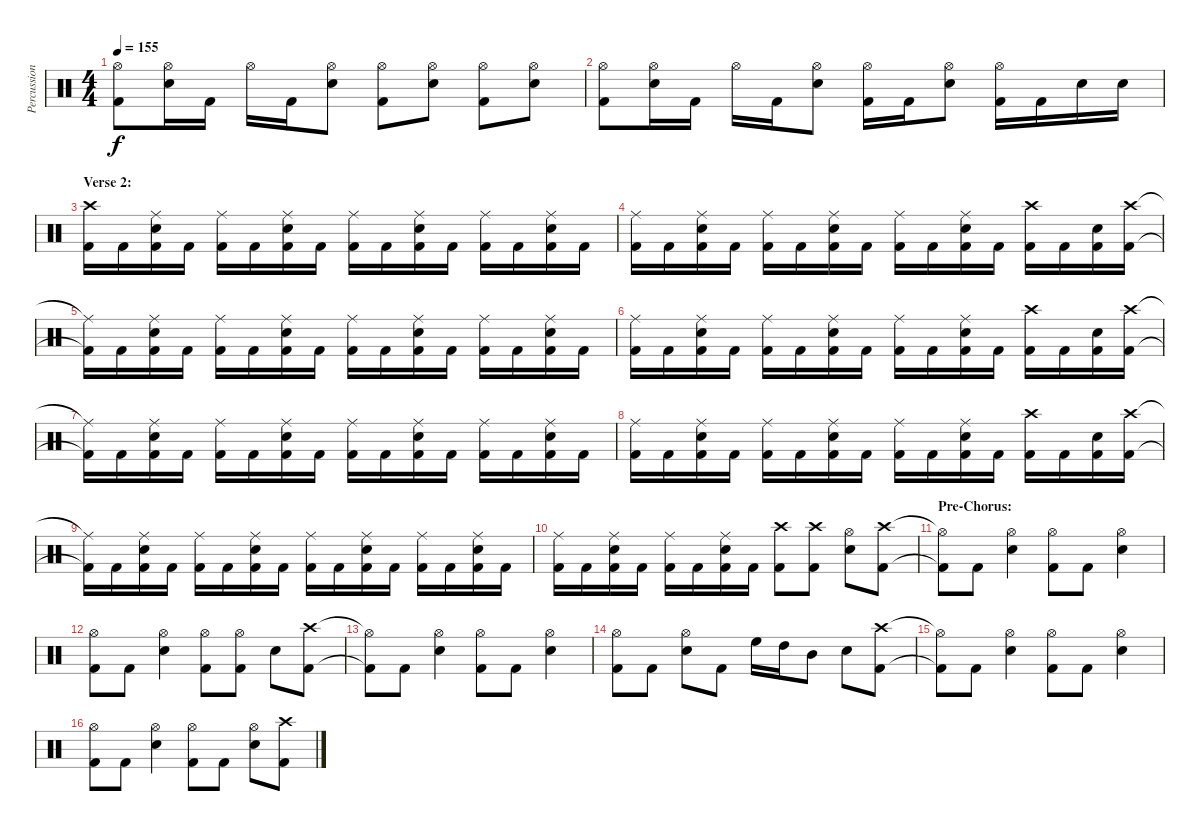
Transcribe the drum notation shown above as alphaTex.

\track ("Percussion" "Percussion") {instrument percussion}
\staff {score}
\articulation defaults
\ts (4 4)
\tempo 155
\clef neutral
\ks c
("Hi-Hat (open)" "Kick (hit) 2").8{dy f} ("Hi-Hat (open)" "Electric Snare (hit)").16 "Kick (hit) 2".16 "Hi-Hat (open)".16 "Kick (hit) 2".16 ("Hi-Hat (open)" "Electric Snare (hit)").8 ("Hi-Hat (open)" "Kick (hit) 2").8 ("Hi-Hat (open)" "Electric Snare (hit)").8 ("Hi-Hat (open)" "Kick (hit) 2").8 ("Hi-Hat (open)" "Electric Snare (hit)").8 |
("Hi-Hat (open)" "Kick (hit) 2").8 ("Hi-Hat (open)" "Electric Snare (hit)").16 "Kick (hit) 2".16 "Hi-Hat (open)".16 "Kick (hit) 2".16 ("Hi-Hat (open)" "Electric Snare (hit)").8 ("Hi-Hat (open)" "Kick (hit) 2").16 "Kick (hit) 2".16 ("Hi-Hat (open)" "Electric Snare (hit)").8 ("Hi-Hat (open)" "Kick (hit) 2").16 "Kick (hit) 2".16 "Electric Snare (hit)".16 "Electric Snare (hit)".16 |
\section ("" "Verse 2:")
("Crash high (hit)" "Kick (hit) 2").16 "Kick (hit) 2".16 ("Ride (middle)" "Electric Snare (hit)" "Kick (hit) 2").16 "Kick (hit) 2".16 ("Ride (middle)" "Kick (hit) 2").16 "Kick (hit) 2".16 ("Ride (middle)" "Electric Snare (hit)" "Kick (hit) 2").16 "Kick (hit) 2".16 ("Ride (middle)" "Kick (hit) 2").16 "Kick (hit) 2".16 ("Ride (middle)" "Electric Snare (hit)" "Kick (hit) 2").16 "Kick (hit) 2".16 ("Ride (middle)" "Kick (hit) 2").16 "Kick (hit) 2".16 ("Ride (middle)" "Electric Snare (hit)" "Kick (hit) 2").16 "Kick (hit) 2".16 |
("Ride (middle)" "Kick (hit) 2").16 "Kick (hit) 2".16 ("Ride (middle)" "Electric Snare (hit)" "Kick (hit) 2").16 "Kick (hit) 2".16 ("Ride (middle)" "Kick (hit) 2").16 "Kick (hit) 2".16 ("Ride (middle)" "Electric Snare (hit)" "Kick (hit) 2").16 "Kick (hit) 2".16 ("Ride (middle)" "Kick (hit) 2").16 "Kick (hit) 2".16 ("Ride (middle)" "Electric Snare (hit)" "Kick (hit) 2").16 "Kick (hit) 2".16 ("Crash high (hit)" "Kick (hit) 2").16 "Kick (hit) 2".16 ("Electric Snare (hit)" "Kick (hit) 2").16 ("Crash high (hit)" "Kick (hit) 2").16 |
("Ride (middle)"{t} "Kick (hit) 2"{t}).16 "Kick (hit) 2".16 ("Ride (middle)" "Electric Snare (hit)" "Kick (hit) 2").16 "Kick (hit) 2".16 ("Ride (middle)" "Kick (hit) 2").16 "Kick (hit) 2".16 ("Ride (middle)" "Electric Snare (hit)" "Kick (hit) 2").16 "Kick (hit) 2".16 ("Ride (middle)" "Kick (hit) 2").16 "Kick (hit) 2".16 ("Ride (middle)" "Electric Snare (hit)" "Kick (hit) 2").16 "Kick (hit) 2".16 ("Ride (middle)" "Kick (hit) 2").16 "Kick (hit) 2".16 ("Ride (middle)" "Electric Snare (hit)" "Kick (hit) 2").16 "Kick (hit) 2".16 |
("Ride (middle)" "Kick (hit) 2").16 "Kick (hit) 2".16 ("Ride (middle)" "Electric Snare (hit)" "Kick (hit) 2").16 "Kick (hit) 2".16 ("Ride (middle)" "Kick (hit) 2").16 "Kick (hit) 2".16 ("Ride (middle)" "Electric Snare (hit)" "Kick (hit) 2").16 "Kick (hit) 2".16 ("Ride (middle)" "Kick (hit) 2").16 "Kick (hit) 2".16 ("Ride (middle)" "Electric Snare (hit)" "Kick (hit) 2").16 "Kick (hit) 2".16 ("Crash high (hit)" "Kick (hit) 2").16 "Kick (hit) 2".16 ("Electric Snare (hit)" "Kick (hit) 2").16 ("Crash high (hit)" "Kick (hit) 2").16 |
("Ride (middle)"{t} "Kick (hit) 2"{t}).16 "Kick (hit) 2".16 ("Ride (middle)" "Electric Snare (hit)" "Kick (hit) 2").16 "Kick (hit) 2".16 ("Ride (middle)" "Kick (hit) 2").16 "Kick (hit) 2".16 ("Ride (middle)" "Electric Snare (hit)" "Kick (hit) 2").16 "Kick (hit) 2".16 ("Ride (middle)" "Kick (hit) 2").16 "Kick (hit) 2".16 ("Ride (middle)" "Electric Snare (hit)" "Kick (hit) 2").16 "Kick (hit) 2".16 ("Ride (middle)" "Kick (hit) 2").16 "Kick (hit) 2".16 ("Ride (middle)" "Electric Snare (hit)" "Kick (hit) 2").16 "Kick (hit) 2".16 |
("Ride (middle)" "Kick (hit) 2").16 "Kick (hit) 2".16 ("Ride (middle)" "Electric Snare (hit)" "Kick (hit) 2").16 "Kick (hit) 2".16 ("Ride (middle)" "Kick (hit) 2").16 "Kick (hit) 2".16 ("Ride (middle)" "Electric Snare (hit)" "Kick (hit) 2").16 "Kick (hit) 2".16 ("Ride (middle)" "Kick (hit) 2").16 "Kick (hit) 2".16 ("Ride (middle)" "Electric Snare (hit)" "Kick (hit) 2").16 "Kick (hit) 2".16 ("Crash high (hit)" "Kick (hit) 2").16 "Kick (hit) 2".16 ("Electric Snare (hit)" "Kick (hit) 2").16 ("Crash high (hit)" "Kick (hit) 2").16 |
("Ride (middle)"{t} "Kick (hit) 2"{t}).16 "Kick (hit) 2".16 ("Ride (middle)" "Electric Snare (hit)" "Kick (hit) 2").16 "Kick (hit) 2".16 ("Ride (middle)" "Kick (hit) 2").16 "Kick (hit) 2".16 ("Ride (middle)" "Electric Snare (hit)" "Kick (hit) 2").16 "Kick (hit) 2".16 ("Ride (middle)" "Kick (hit) 2").16 "Kick (hit) 2".16 ("Ride (middle)" "Electric Snare (hit)" "Kick (hit) 2").16 "Kick (hit) 2".16 ("Ride (middle)" "Kick (hit) 2").16 "Kick (hit) 2".16 ("Ride (middle)" "Electric Snare (hit)" "Kick (hit) 2").16 "Kick (hit) 2".16 |
("Ride (middle)" "Kick (hit) 2").16 "Kick (hit) 2".16 ("Ride (middle)" "Electric Snare (hit)" "Kick (hit) 2").16 "Kick (hit) 2".16 ("Ride (middle)" "Kick (hit) 2").16 "Kick (hit) 2".16 ("Ride (middle)" "Electric Snare (hit)" "Kick (hit) 2").16 "Kick (hit) 2".16 ("Crash high (hit)" "Kick (hit) 2").8 ("Crash high (hit)" "Kick (hit) 2").8 ("Hi-Hat (open)" "Electric Snare (hit)").8 ("Crash high (hit)" "Kick (hit) 2").8 |
\section ("" "Pre-Chorus:")
("Hi-Hat (open)"{t} "Kick (hit) 2"{t}).8 "Kick (hit) 2".8 ("Hi-Hat (open)" "Electric Snare (hit)").4 ("Hi-Hat (open)" "Kick (hit) 2").8 "Kick (hit) 2".8 ("Hi-Hat (open)" "Electric Snare (hit)").4 |
("Hi-Hat (open)" "Kick (hit) 2").8 "Kick (hit) 2".8 ("Hi-Hat (open)" "Electric Snare (hit)").4 ("Hi-Hat (open)" "Kick (hit) 2").8 ("Hi-Hat (open)" "Kick (hit) 2").8 "Electric Snare (hit)".8 ("Crash high (hit)" "Kick (hit) 2").8 |
("Hi-Hat (open)"{t} "Kick (hit) 2"{t}).8 "Kick (hit) 2".8 ("Hi-Hat (open)" "Electric Snare (hit)").4 ("Hi-Hat (open)" "Kick (hit) 2").8 "Kick (hit) 2".8 ("Hi-Hat (open)" "Electric Snare (hit)").4 |
("Hi-Hat (open)" "Kick (hit) 2").8 "Kick (hit) 2".8 ("Hi-Hat (open)" "Electric Snare (hit)").8 "Kick (hit) 2".8 "High Floor Tom (hit)".16 "High Tom (hit)".16 "Mid Tom (hit)".8 "Electric Snare (hit)".8 ("Crash high (hit)" "Kick (hit) 2").8 |
("Hi-Hat (open)"{t} "Kick (hit) 2"{t}).8 "Kick (hit) 2".8 ("Hi-Hat (open)" "Electric Snare (hit)").4 ("Hi-Hat (open)" "Kick (hit) 2").8 "Kick (hit) 2".8 ("Hi-Hat (open)" "Electric Snare (hit)").4 |
("Hi-Hat (open)" "Kick (hit) 2").8 "Kick (hit) 2".8 ("Hi-Hat (open)" "Electric Snare (hit)").4 ("Hi-Hat (open)" "Kick (hit) 2").8 "Kick (hit) 2".8 ("Hi-Hat (open)" "Electric Snare (hit)").8 ("Crash high (hit)" "Kick (hit) 2").8
